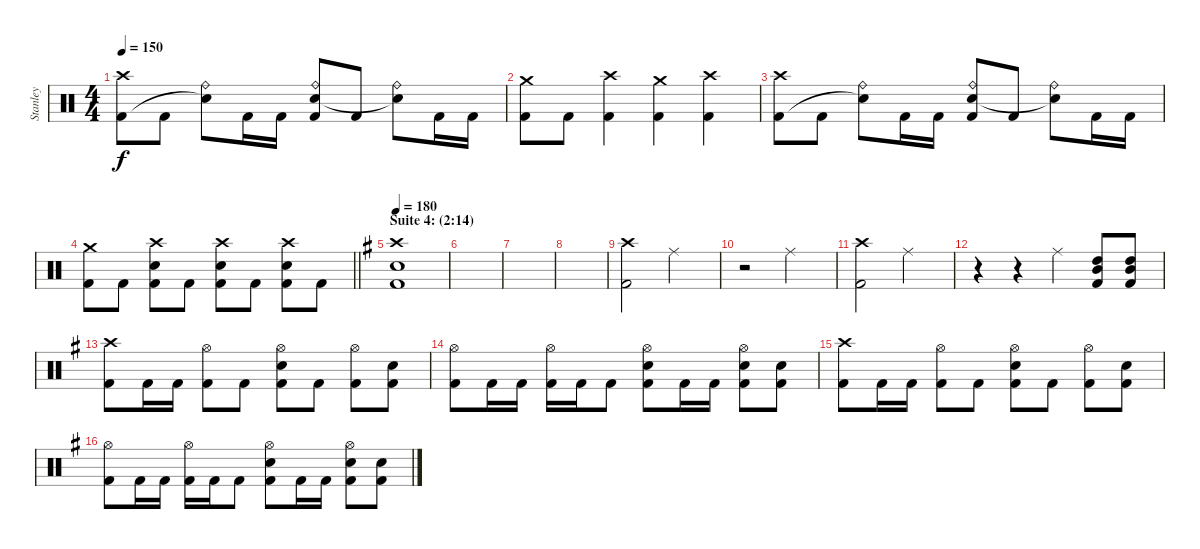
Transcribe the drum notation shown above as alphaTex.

\track ("Stanley" "Stanley") {instrument percussion}
\staff {score}
\articulation defaults
\ts (4 4)
\tempo 150
\clef neutral
\ks c
("Crash high (hit)" "Kick (hit) 2").8{dy f} "Kick (hit) 2".8 ("Ride (bell)" "Snare (hit)"{t}).8 "Kick (hit) 2".16 "Kick (hit) 2".16 ("Ride (bell)" "Electric Snare (hit)" "Kick (hit) 2").8 "Kick (hit) 2".8 ("Ride (bell)" "Snare (hit)"{t}).8 "Kick (hit) 2".16 "Kick (hit) 2".16 |
("Crash medium (hit)" "Kick (hit) 2").8 "Kick (hit) 2".8 ("Crash high (hit)" "Kick (hit) 2").4 ("Crash medium (hit)" "Kick (hit) 2").4 ("Crash high (hit)" "Kick (hit) 2").4 |
("Crash high (hit)" "Kick (hit) 2").8 "Kick (hit) 2".8 ("Ride (bell)" "Snare (hit)"{t}).8 "Kick (hit) 2".16 "Kick (hit) 2".16 ("Ride (bell)" "Electric Snare (hit)" "Kick (hit) 2").8 "Kick (hit) 2".8 ("Ride (bell)" "Snare (hit)"{t}).8 "Kick (hit) 2".16 "Kick (hit) 2".16 |
\barLineRight lightlight
("Crash medium (hit)" "Kick (hit) 2").8 "Kick (hit) 2".8 ("Crash high (hit)" "Electric Snare (hit)" "Kick (hit) 2").8 "Kick (hit) 2".8 ("Crash high (hit)" "Electric Snare (hit)" "Kick (hit) 2").8 "Kick (hit) 2".8 ("Crash high (hit)" "Electric Snare (hit)" "Kick (hit) 2").8 "Kick (hit) 2".8 |
\section ("" "Suite 4: (2:14)")
\tempo 180
\ks g
("Crash high (hit)" "Electric Snare (hit)" "Kick (hit) 2").1 |
|
|
|
("Crash high (hit)" "Kick (hit) 2").2 "Ride (middle)".2 |
r.2 "Ride (middle)".2 |
("Crash high (hit)" "Kick (hit) 2").2 "Ride (middle)".2 |
r.4 r.4 "Ride (middle)".4 ("High Tom (hit)" "Mid Tom (hit)" "Kick (hit) 2").8 ("High Tom (hit)" "Mid Tom (hit)" "Kick (hit) 2").8 |
("Crash high (hit)" "Kick (hit) 2").8 "Kick (hit) 2".16 "Kick (hit) 2".16 ("Hi-Hat (open)" "Kick (hit) 2").8 "Kick (hit) 2".8 ("Hi-Hat (open)" "Electric Snare (hit)" "Kick (hit) 2").8 "Kick (hit) 2".8 ("Hi-Hat (open)" "Kick (hit) 2").8 ("Electric Snare (hit)" "Kick (hit) 2").8 |
("Hi-Hat (open)" "Kick (hit) 2").8 "Kick (hit) 2".16 "Kick (hit) 2".16 ("Hi-Hat (open)" "Kick (hit) 2").16 "Kick (hit) 2".16 "Kick (hit) 2".8 ("Hi-Hat (open)" "Electric Snare (hit)" "Kick (hit) 2").8 "Kick (hit) 2".16 "Kick (hit) 2".16 ("Hi-Hat (open)" "Electric Snare (hit)" "Kick (hit) 2").8 ("Electric Snare (hit)" "Kick (hit) 2").8 |
("Crash high (hit)" "Kick (hit) 2").8 "Kick (hit) 2".16 "Kick (hit) 2".16 ("Hi-Hat (open)" "Kick (hit) 2").8 "Kick (hit) 2".8 ("Hi-Hat (open)" "Electric Snare (hit)" "Kick (hit) 2").8 "Kick (hit) 2".8 ("Hi-Hat (open)" "Kick (hit) 2").8 ("Electric Snare (hit)" "Kick (hit) 2").8 |
("Hi-Hat (open)" "Kick (hit) 2").8 "Kick (hit) 2".16 "Kick (hit) 2".16 ("Hi-Hat (open)" "Kick (hit) 2").16 "Kick (hit) 2".16 "Kick (hit) 2".8 ("Hi-Hat (open)" "Electric Snare (hit)" "Kick (hit) 2").8 "Kick (hit) 2".16 "Kick (hit) 2".16 ("Hi-Hat (open)" "Electric Snare (hit)" "Kick (hit) 2").8 ("Electric Snare (hit)" "Kick (hit) 2").8
